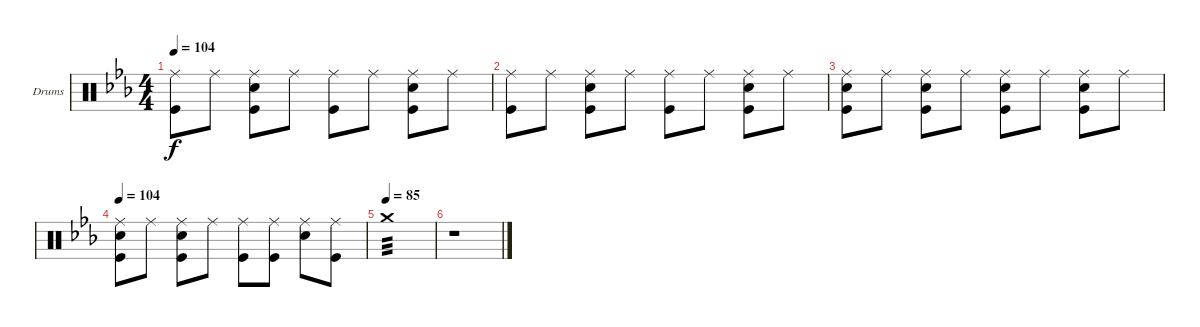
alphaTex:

\bracketExtendMode groupsimilarinstruments
\firstSystemTrackNameOrientation horizontal
\otherSystemsTrackNameOrientation horizontal
\track ("Drumkit" "Drums") {instrument percussion}
\staff {score}
\articulation defaults
\ts (4 4)
\tempo 104
\clef neutral
\ks eb
("Ride (middle)" "Kick (hit)").8{dy f} "Ride (middle)".8 ("Ride (middle)" "Snare (hit) 2" "Kick (hit)").8 "Ride (middle)".8 ("Ride (middle)" "Kick (hit)").8 "Ride (middle)".8 ("Ride (middle)" "Snare (hit) 2" "Kick (hit)").8 "Ride (middle)".8 |
("Ride (middle)" "Kick (hit)").8 "Ride (middle)".8 ("Ride (middle)" "Snare (hit) 2" "Kick (hit)").8 "Ride (middle)".8 ("Ride (middle)" "Kick (hit)").8 "Ride (middle)".8 ("Ride (middle)" "Snare (hit) 2" "Kick (hit)").8 "Ride (middle)".8 |
("Ride (middle)" "Snare (hit) 2" "Kick (hit)").8 "Ride (middle)".8 ("Ride (middle)" "Snare (hit) 2" "Kick (hit)").8 "Ride (middle)".8 ("Ride (middle)" "Snare (hit) 2" "Kick (hit)").8 "Ride (middle)".8 ("Ride (middle)" "Snare (hit) 2" "Kick (hit)").8 "Ride (middle)".8 |
\tempo 104
("Ride (middle)" "Snare (hit) 2" "Kick (hit)").8 "Ride (middle)".8 ("Ride (middle)" "Snare (hit) 2" "Kick (hit)").8 "Ride (middle)".8 ("Ride (middle)" "Kick (hit)").8 ("Ride (middle)" "Kick (hit)").8 ("Ride (middle)" "Snare (hit) 2").8 ("Ride (middle)" "Kick (hit)").8 |
\tempo (85)
"Crash medium (hit)".1{tp 3} |
r.1
